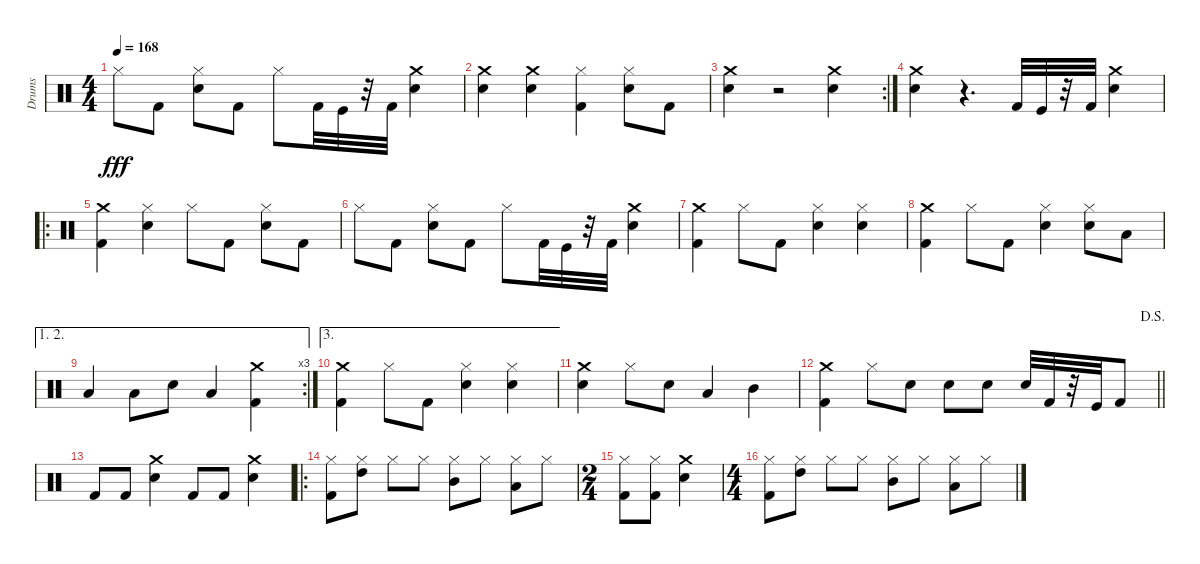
\track ("Drums" "Drums") {instrument percussion}
\staff {score}
\articulation defaults
\ts (4 4)
\tempo 168
\clef neutral
\ks c "Hi-Hat (closed)".8{dy fff} "Kick (hit) 2".8
("Snare (hit) 2" "Hi-Hat (closed)").8 "Kick (hit) 2".8 "Hi-Hat (closed)".8 "Kick (hit) 2".32 "Kick (hit)".32 r.32 "Kick (hit) 2".32 ("Crash medium (hit)" "Snare (hit) 2").4 |
("Crash medium (hit)" "Snare (hit) 2").4 ("Crash medium (hit)" "Snare (hit) 2").4 ("Hi-Hat (closed)" "Kick (hit) 2").4 ("Snare (hit) 2" "Hi-Hat (closed)").8 "Kick (hit) 2".8 |
\rc 2
("Snare (hit) 2" "Crash medium (hit)").4 r.2 ("Crash medium (hit)" "Snare (hit) 2").4 |
("Snare (hit) 2" "Crash medium (hit)").4 r.4{d} "Kick (hit) 2".32 "Kick (hit)".32 r.32 "Kick (hit) 2".32 ("Crash medium (hit)" "Snare (hit) 2").4 |
\ro
("Kick (hit) 2" "Crash medium (hit)").4 ("Hi-Hat (closed)" "Snare (hit) 2").4 "Hi-Hat (closed)".8 "Kick (hit) 2".8 ("Snare (hit) 2" "Hi-Hat (closed)").8 "Kick (hit) 2".8 |
"Hi-Hat (closed)".8 "Kick (hit) 2".8 ("Snare (hit) 2" "Hi-Hat (closed)").8 "Kick (hit) 2".8 "Hi-Hat (closed)".8 "Kick (hit) 2".32 "Kick (hit)".32 r.32 "Kick (hit) 2".32 ("Crash medium (hit)" "Snare (hit) 2").4 |
("Kick (hit) 2" "Crash medium (hit)").4 "Hi-Hat (closed)".8 "Kick (hit) 2".8 ("Snare (hit) 2" "Hi-Hat (closed)").4 ("Hi-Hat (closed)" "Snare (hit) 2").4 |
("Kick (hit) 2" "Crash medium (hit)").4 "Hi-Hat (closed)".8 "Kick (hit) 2".8 ("Snare (hit) 2" "Hi-Hat (closed)").4 ("Hi-Hat (closed)" "Snare (hit) 2").8 "Low Tom (hit)".8 |
\ae (1 2)
\rc 3 "Low Tom (hit)".4 "Low Tom (hit)".8 "Snare (hit) 2".8 "Low Tom (hit)".4
("Kick (hit) 2" "Crash medium (hit)").4 |
\ae 3
("Kick (hit) 2" "Crash medium (hit)").4 "Hi-Hat (closed)".8 "Kick (hit) 2".8 ("Snare (hit) 2" "Hi-Hat (closed)").4 ("Hi-Hat (closed)" "Snare (hit) 2").4 |
("Snare (hit) 2" "Crash medium (hit)").4 "Hi-Hat (closed)".8 "Snare (hit) 2".8 "Low Tom (hit)".4 "Mid Tom (hit)".4 |
\jump dalsegno
\barLineRight lightlight
("Kick (hit) 2" "Crash medium (hit)").4 "Hi-Hat (closed)".8 "Snare (hit) 2".8 "Snare (hit) 2".8 "Snare (hit) 2".8 "Snare (hit) 2".32 "Kick (hit) 2".32 r.32 "Kick (hit)".32 "Kick (hit) 2".8 |
"Kick (hit) 2".8 "Kick (hit) 2".8 ("Snare (hit) 2" "Crash medium (hit)").4 "Kick (hit) 2".8 "Kick (hit) 2".8 ("Crash medium (hit)" "Snare (hit) 2").4 |
\ro
("Hi-Hat (closed)" "Kick (hit) 2").8 ("High Tom (hit)" "Hi-Hat (closed)").8{balance 16} "Hi-Hat (closed)".8{balance 8} "Hi-Hat (closed)".8 ("Mid Tom (hit)" "Hi-Hat (closed)").8 "Hi-Hat (closed)".8 ("Low Tom (hit)" "Hi-Hat (closed)").8{balance 0} "Hi-Hat (closed)".8{balance 8} |
\ts (2 4)
("Kick (hit) 2" "Hi-Hat (closed)").8 ("Kick (hit) 2" "Hi-Hat (closed)").8 ("Snare (hit) 2" "Crash medium (hit)").4 |
\ts (4 4)
("Hi-Hat (closed)" "Kick (hit) 2").8 ("High Tom (hit)" "Hi-Hat (closed)").8{balance 16} "Hi-Hat (closed)".8{balance 8} "Hi-Hat (closed)".8 ("Mid Tom (hit)" "Hi-Hat (closed)").8 "Hi-Hat (closed)".8 ("Hi-Hat (closed)" "Low Tom (hit)").8{balance 0} "Hi-Hat (closed)".8{balance 8}
